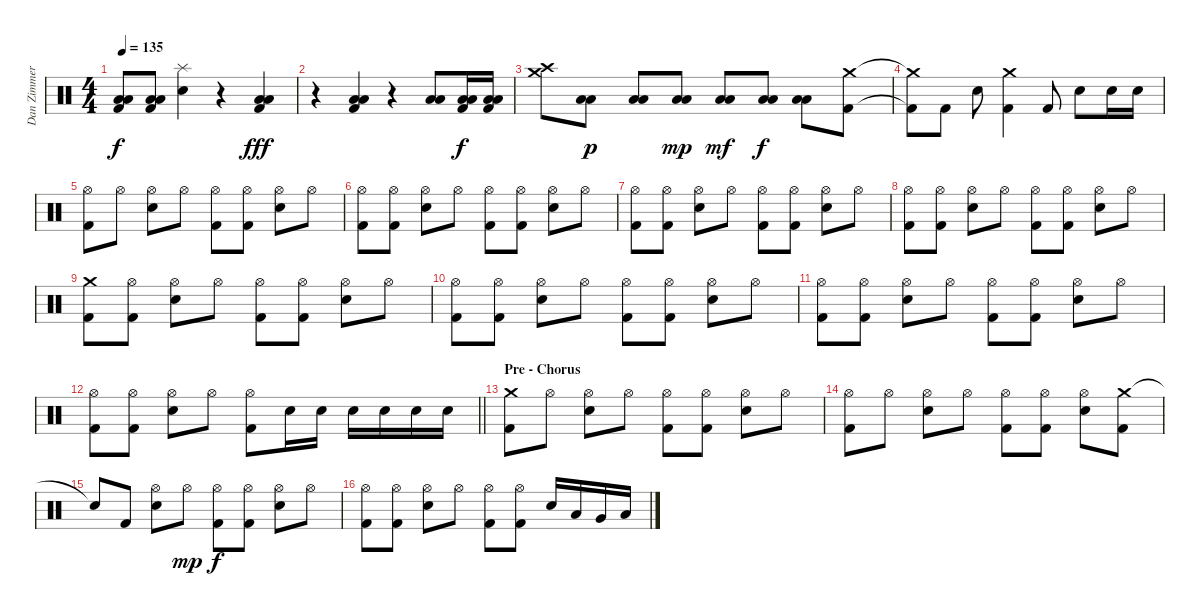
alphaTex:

\track ("Dan Zimmermann" "Dan Zimmer") {instrument percussion}
\staff {score}
\articulation defaults
\ts (4 4)
\tempo 135
\clef neutral
\ks c
("Low Floor Tom (hit)" "Low Floor Tom (hit)" "Kick (hit) 2").8{dy f} ("Low Floor Tom (hit)" "Low Floor Tom (hit)" "Kick (hit) 2").8 ("Splash (hit)" "Electric Snare (hit)").4 r.4 ("Low Floor Tom (hit)" "Low Floor Tom (hit)" "Kick (hit) 2").4{dy fff} |
r.4 ("Low Floor Tom (hit)" "Low Floor Tom (hit)" "Kick (hit) 2").4 r.4 ("Low Floor Tom (hit)" "Low Floor Tom (hit)").8 ("Low Floor Tom (hit)" "Low Floor Tom (hit)" "Kick (hit) 2").16{dy f} ("Low Floor Tom (hit)" "Low Floor Tom (hit)" "Kick (hit) 2").16 |
("Crash medium (hit)" "Crash high (hit)").8 ("Low Floor Tom (hit)" "Low Floor Tom (hit)").8{dy p} ("Low Floor Tom (hit)" "Low Floor Tom (hit)").8 ("Low Floor Tom (hit)" "Low Floor Tom (hit)").8{dy mp} ("Low Floor Tom (hit)" "Low Floor Tom (hit)").8{dy mf} ("Low Floor Tom (hit)" "Low Floor Tom (hit)").8{dy f} ("Low Floor Tom (hit)" "Low Floor Tom (hit)").8 ("Crash medium (hit)" "Kick (hit) 2").8 |
("Crash medium (hit)"{t} "Kick (hit) 2"{t}).8 "Kick (hit) 2".8 "Electric Snare (hit)".8 ("Crash medium (hit)" "Kick (hit) 2").4 "Kick (hit) 2".8 "Electric Snare (hit)".8 "Electric Snare (hit)".16 "Electric Snare (hit)".16 |
("Hi-Hat (open)" "Kick (hit) 2").8 "Hi-Hat (open)".8 ("Hi-Hat (open)" "Electric Snare (hit)").8 "Hi-Hat (open)".8 ("Hi-Hat (open)" "Kick (hit) 2").8 ("Hi-Hat (open)" "Kick (hit) 2").8 ("Hi-Hat (open)" "Electric Snare (hit)").8 "Hi-Hat (open)".8 |
("Hi-Hat (open)" "Kick (hit) 2").8 ("Hi-Hat (open)" "Kick (hit) 2").8 ("Hi-Hat (open)" "Electric Snare (hit)").8 "Hi-Hat (open)".8 ("Hi-Hat (open)" "Kick (hit) 2").8 ("Hi-Hat (open)" "Kick (hit) 2").8 ("Hi-Hat (open)" "Electric Snare (hit)").8 "Hi-Hat (open)".8 |
("Hi-Hat (open)" "Kick (hit) 2").8 ("Hi-Hat (open)" "Kick (hit) 2").8 ("Hi-Hat (open)" "Electric Snare (hit)").8 "Hi-Hat (open)".8 ("Hi-Hat (open)" "Kick (hit) 2").8 ("Hi-Hat (open)" "Kick (hit) 2").8 ("Hi-Hat (open)" "Electric Snare (hit)").8 "Hi-Hat (open)".8 |
("Hi-Hat (open)" "Kick (hit) 2").8 ("Hi-Hat (open)" "Kick (hit) 2").8 ("Hi-Hat (open)" "Electric Snare (hit)").8 "Hi-Hat (open)".8 ("Hi-Hat (open)" "Kick (hit) 2").8 ("Hi-Hat (open)" "Kick (hit) 2").8 ("Hi-Hat (open)" "Electric Snare (hit)").8 "Hi-Hat (open)".8 |
("Crash medium (hit)" "Kick (hit) 2").8 ("Hi-Hat (open)" "Kick (hit) 2").8 ("Hi-Hat (open)" "Electric Snare (hit)").8 "Hi-Hat (open)".8 ("Hi-Hat (open)" "Kick (hit) 2").8 ("Hi-Hat (open)" "Kick (hit) 2").8 ("Hi-Hat (open)" "Electric Snare (hit)").8 "Hi-Hat (open)".8 |
("Hi-Hat (open)" "Kick (hit) 2").8 ("Hi-Hat (open)" "Kick (hit) 2").8 ("Hi-Hat (open)" "Electric Snare (hit)").8 "Hi-Hat (open)".8 ("Hi-Hat (open)" "Kick (hit) 2").8 ("Hi-Hat (open)" "Kick (hit) 2").8 ("Hi-Hat (open)" "Electric Snare (hit)").8 "Hi-Hat (open)".8 |
("Hi-Hat (open)" "Kick (hit) 2").8 ("Hi-Hat (open)" "Kick (hit) 2").8 ("Hi-Hat (open)" "Electric Snare (hit)").8 "Hi-Hat (open)".8 ("Hi-Hat (open)" "Kick (hit) 2").8 ("Hi-Hat (open)" "Kick (hit) 2").8 ("Hi-Hat (open)" "Electric Snare (hit)").8 "Hi-Hat (open)".8 |
\barLineRight lightlight
("Hi-Hat (open)" "Kick (hit) 2").8 ("Hi-Hat (open)" "Kick (hit) 2").8 ("Hi-Hat (open)" "Electric Snare (hit)").8 "Hi-Hat (open)".8 ("Hi-Hat (open)" "Kick (hit) 2").8 "Electric Snare (hit)".16 "Electric Snare (hit)".16 "Electric Snare (hit)".16 "Electric Snare (hit)".16 "Electric Snare (hit)".16 "Electric Snare (hit)".16 |
\section ("" "Pre - Chorus")
("Crash medium (hit)" "Kick (hit) 2").8 "Hi-Hat (open)".8 ("Hi-Hat (open)" "Electric Snare (hit)").8 "Hi-Hat (open)".8 ("Hi-Hat (open)" "Kick (hit) 2").8 ("Hi-Hat (open)" "Kick (hit) 2").8 ("Hi-Hat (open)" "Electric Snare (hit)").8 "Hi-Hat (open)".8 |
("Hi-Hat (open)" "Kick (hit) 2").8 "Hi-Hat (open)".8 ("Hi-Hat (open)" "Electric Snare (hit)").8 "Hi-Hat (open)".8 ("Hi-Hat (open)" "Kick (hit) 2").8 ("Hi-Hat (open)" "Kick (hit) 2").8 ("Hi-Hat (open)" "Electric Snare (hit)").8 ("Crash medium (hit)" "Kick (hit) 2").8 |
"Snare (hit)"{t}.8 "Kick (hit) 2".8 ("Hi-Hat (open)" "Electric Snare (hit)").8 "Hi-Hat (open)".8{dy mp} ("Hi-Hat (open)" "Kick (hit) 2").8{dy f} ("Hi-Hat (open)" "Kick (hit) 2").8 ("Hi-Hat (open)" "Electric Snare (hit)").8 "Hi-Hat (open)".8 |
("Hi-Hat (open)" "Kick (hit) 2").8 ("Hi-Hat (open)" "Kick (hit) 2").8 ("Hi-Hat (open)" "Electric Snare (hit)").8 "Hi-Hat (open)".8 ("Hi-Hat (open)" "Kick (hit) 2").8 ("Hi-Hat (open)" "Kick (hit) 2").8 "Electric Snare (hit)".16 "Low Tom (hit)".16 "Very Low Tom (hit)".16 "Low Floor Tom (hit)".16
